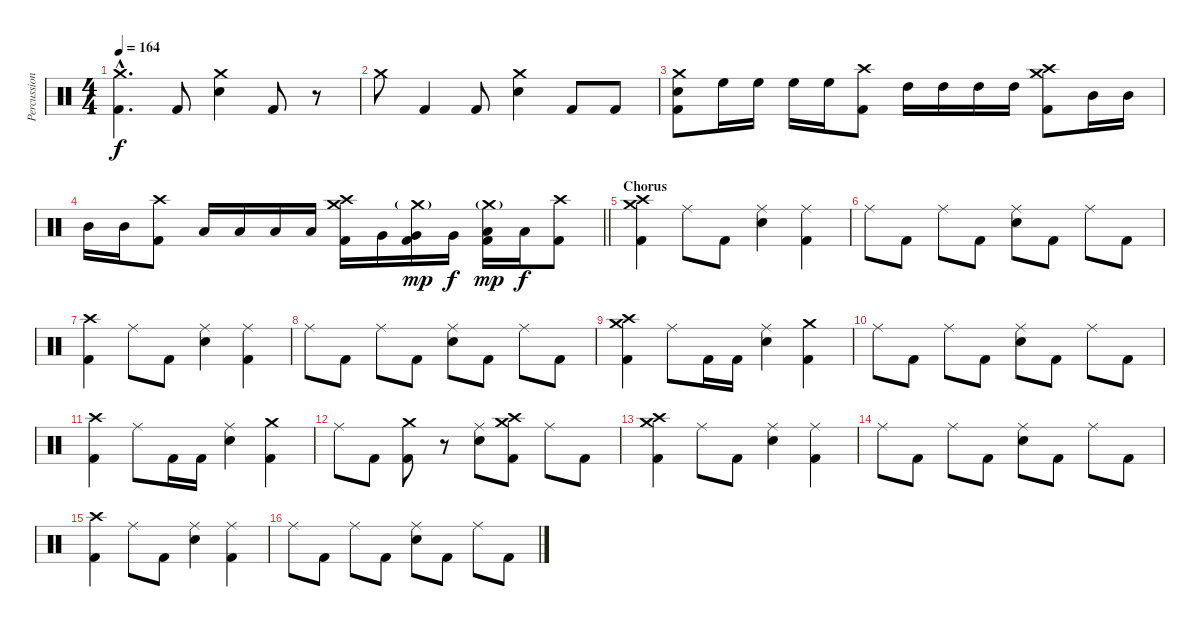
\track ("Percussions" "Percussion") {instrument percussion}
\staff {score}
\articulation defaults
\ts (4 4)
\tempo 164
\clef neutral
\ks c
("Crash medium (hit)"{hac} "Kick (hit) 2"{hac}).4{d dy f} "Kick (hit) 2".8 ("Crash medium (hit)" "Snare (hit) 2").4 "Kick (hit) 2".8 r.8 |
"Crash medium (hit)".8 "Kick (hit) 2".4 "Kick (hit) 2".8 ("Crash medium (hit)" "Snare (hit) 2").4 "Kick (hit) 2".8 "Kick (hit) 2".8 |
("Crash medium (hit)" "Snare (hit) 2" "Kick (hit) 2").8 "High Floor Tom (hit)".16 "High Floor Tom (hit)".16 "High Floor Tom (hit)".16 "High Floor Tom (hit)".16 ("Crash high (hit)" "Kick (hit) 2").8 "High Tom (hit)".16 "High Tom (hit)".16 "High Tom (hit)".16 "High Tom (hit)".16 ("Crash medium (hit)" "Crash high (hit)" "Kick (hit) 2").8 "Mid Tom (hit)".16 "Mid Tom (hit)".16 |
\barLineRight lightlight "Mid Tom (hit)".16 "Mid Tom (hit)".16
("Crash high (hit)" "Kick (hit) 2").8 "Low Tom (hit)".16 "Low Tom (hit)".16 "Low Tom (hit)".16 "Low Tom (hit)".16 ("Crash medium (hit)" "Crash high (hit)" "Kick (hit) 2").16 "Very Low Tom (hit)".16 ("Crash medium (hit)"{g} "Very Low Tom (hit)" "Kick (hit) 2").16{dy mp} "Very Low Tom (hit)".16{dy f} ("Crash medium (hit)"{g} "Low Floor Tom (hit)" "Kick (hit) 2").16{dy mp} "Low Floor Tom (hit)".16{dy f} ("Crash high (hit)" "Kick (hit) 2").8 |
\section ("" "Chorus")
("Crash medium (hit)" "Crash high (hit)" "Kick (hit) 2").4 "Ride (middle)".8 "Kick (hit) 2".8 ("Ride (middle)" "Snare (hit) 2").4 ("Ride (middle)" "Kick (hit) 2").4 |
"Ride (middle)".8 "Kick (hit) 2".8 "Ride (middle)".8 "Kick (hit) 2".8 ("Ride (middle)" "Snare (hit) 2").8 "Kick (hit) 2".8 "Ride (middle)".8 "Kick (hit) 2".8 |
("Crash high (hit)" "Kick (hit) 2").4 "Ride (middle)".8 "Kick (hit) 2".8 ("Ride (middle)" "Snare (hit) 2").4 ("Ride (middle)" "Kick (hit) 2").4 |
"Ride (middle)".8 "Kick (hit) 2".8 "Ride (middle)".8 "Kick (hit) 2".8 ("Ride (middle)" "Snare (hit) 2").8 "Kick (hit) 2".8 "Ride (middle)".8 "Kick (hit) 2".8 |
("Crash medium (hit)" "Crash high (hit)" "Kick (hit) 2").4 "Ride (middle)".8 "Kick (hit) 2".16 "Kick (hit) 2".16 ("Ride (middle)" "Snare (hit) 2").4 ("Crash medium (hit)" "Kick (hit) 2").4 |
"Ride (middle)".8 "Kick (hit) 2".8 "Ride (middle)".8 "Kick (hit) 2".8 ("Ride (middle)" "Snare (hit) 2").8 "Kick (hit) 2".8 "Ride (middle)".8 "Kick (hit) 2".8 |
("Crash high (hit)" "Kick (hit) 2").4 "Ride (middle)".8 "Kick (hit) 2".16 "Kick (hit) 2".16 ("Ride (middle)" "Snare (hit) 2").4 ("Crash medium (hit)" "Kick (hit) 2").4 |
"Ride (middle)".8 "Kick (hit) 2".8 ("Crash medium (hit)" "Kick (hit) 2").8 r.8 ("Ride (middle)" "Snare (hit) 2").8 ("Crash medium (hit)" "Crash high (hit)" "Kick (hit) 2").8 "Ride (middle)".8 "Kick (hit) 2".8 |
("Crash medium (hit)" "Crash high (hit)" "Kick (hit) 2").4 "Ride (middle)".8 "Kick (hit) 2".8 ("Ride (middle)" "Snare (hit) 2").4 ("Ride (middle)" "Kick (hit) 2").4 |
"Ride (middle)".8 "Kick (hit) 2".8 "Ride (middle)".8 "Kick (hit) 2".8 ("Ride (middle)" "Snare (hit) 2").8 "Kick (hit) 2".8 "Ride (middle)".8 "Kick (hit) 2".8 |
("Crash high (hit)" "Kick (hit) 2").4 "Ride (middle)".8 "Kick (hit) 2".8 ("Ride (middle)" "Snare (hit) 2").4 ("Ride (middle)" "Kick (hit) 2").4 |
"Ride (middle)".8 "Kick (hit) 2".8 "Ride (middle)".8 "Kick (hit) 2".8 ("Ride (middle)" "Snare (hit) 2").8 "Kick (hit) 2".8 "Ride (middle)".8 "Kick (hit) 2".8
